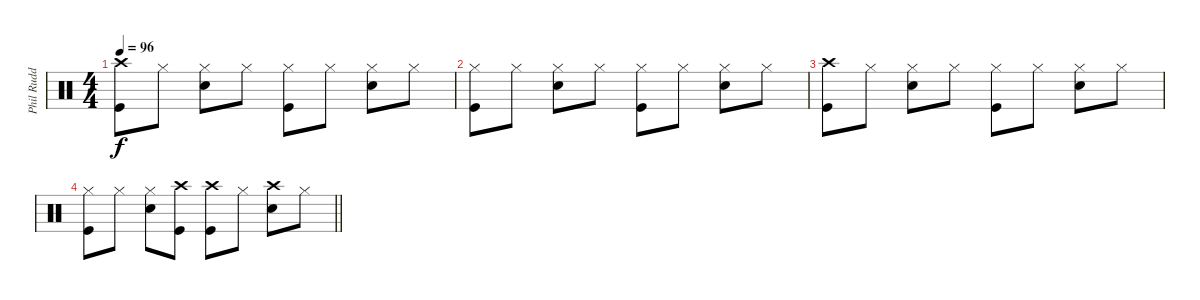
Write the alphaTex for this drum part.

\track ("Phil Rudd" "Phil Rudd") {instrument percussion}
\staff {score}
\articulation defaults
\ts (4 4)
\tempo 96
\clef neutral
\ks c
("Crash high (hit)" "Kick (hit)").8{dy f} "Hi-Hat (closed)".8 ("Hi-Hat (closed)" "Electric Snare (hit)").8 "Hi-Hat (closed)".8 ("Hi-Hat (closed)" "Kick (hit)").8 "Hi-Hat (closed)".8 ("Hi-Hat (closed)" "Electric Snare (hit)").8 "Hi-Hat (closed)".8 |
("Hi-Hat (closed)" "Kick (hit)").8 "Hi-Hat (closed)".8 ("Hi-Hat (closed)" "Electric Snare (hit)").8 "Hi-Hat (closed)".8 ("Hi-Hat (closed)" "Kick (hit)").8 "Hi-Hat (closed)".8 ("Hi-Hat (closed)" "Electric Snare (hit)").8 "Hi-Hat (closed)".8 |
("Crash high (hit)" "Kick (hit)").8 "Hi-Hat (closed)".8 ("Hi-Hat (closed)" "Electric Snare (hit)").8 "Hi-Hat (closed)".8 ("Hi-Hat (closed)" "Kick (hit)").8 "Hi-Hat (closed)".8 ("Hi-Hat (closed)" "Electric Snare (hit)").8 "Hi-Hat (closed)".8 |
\barLineRight lightlight
("Hi-Hat (closed)" "Kick (hit)").8 "Hi-Hat (closed)".8 ("Hi-Hat (closed)" "Electric Snare (hit)").8 ("Crash high (hit)" "Kick (hit)").8 ("Crash high (hit)" "Kick (hit)").8 "Hi-Hat (closed)".8 ("Crash high (hit)" "Electric Snare (hit)").8 "Hi-Hat (closed)".8
